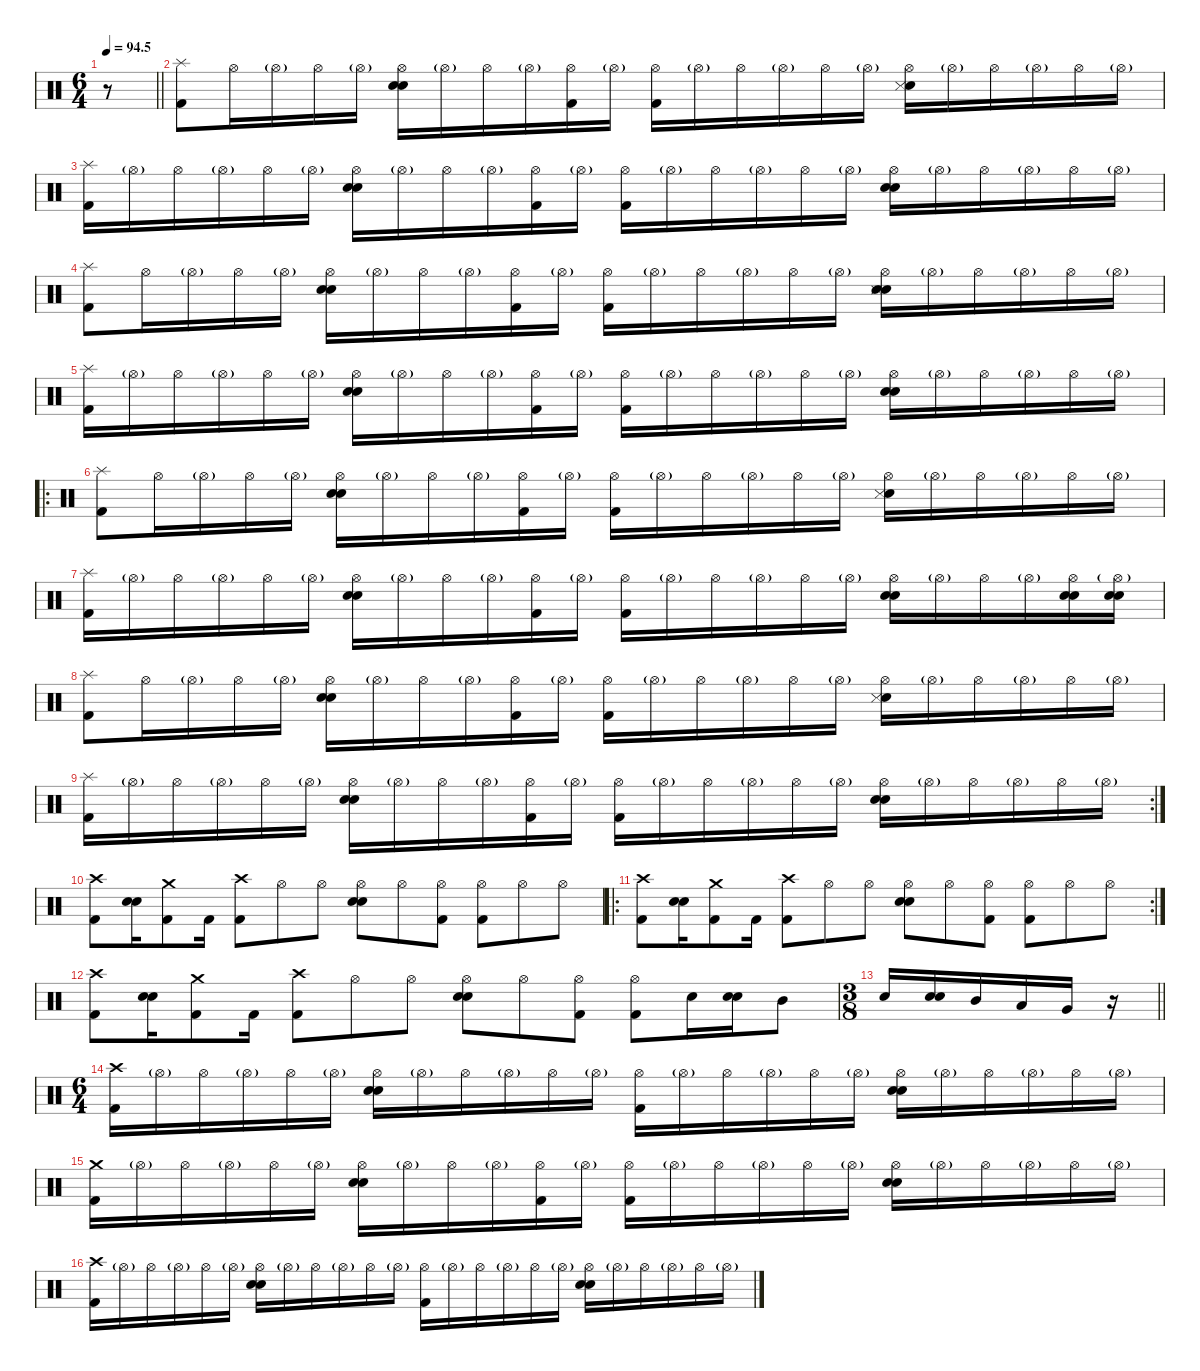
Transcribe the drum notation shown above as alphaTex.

\defaultSystemsLayout 4
\hideDynamics
\bracketExtendMode nobrackets
\singleTrackTrackNamePolicy hidden
\multiTrackTrackNamePolicy hidden
\firstSystemTrackNameMode fullname
\firstSystemTrackNameOrientation horizontal
\otherSystemsTrackNameOrientation horizontal
\track ("Drums" "drm.") {defaultSystemsLayout 2 instrument percussion}
\staff {score}
\articulation defaults
\ts (6 4)
\beaming (8 3 3 3 3)
\ac
\tempo
94.5
\accidentals auto
\clef neutral
\ottava regular
\simile none
\barLineRight lightlight
\ks c
r.8{dy fff beam Down} |
("Splash (hit)" "Kick (hit) 2").8{beam Down} "Hi-Hat (open)".16{dy mf beam Down} "Hi-Hat (open)"{g}.16{beam Down} "Hi-Hat (open)".16{beam Down} "Hi-Hat (open)"{g}.16{beam Down} ("Hi-Hat (open)" "Snare (hit) 2" "Metronome (bell)").16{beam Down} "Hi-Hat (open)"{g}.16{beam Down} "Hi-Hat (open)".16{beam Down} "Hi-Hat (open)"{g}.16{beam Down} ("Hi-Hat (open)" "Kick (hit) 2").16{beam Down} "Hi-Hat (open)"{g}.16{beam Down} ("Hi-Hat (open)" "Kick (hit) 2").16{beam Down} "Hi-Hat (open)"{g}.16{beam Down} "Hi-Hat (open)".16{beam Down} "Hi-Hat (open)"{g}.16{beam Down} "Hi-Hat (open)".16{beam Down} "Hi-Hat (open)"{g}.16{beam Down} ("Hi-Hat (open)" "Snare (hit) 2" "Metronome (hit)").16{dy f beam Down} "Hi-Hat (open)"{g}.16{dy mf beam Down} "Hi-Hat (open)".16{beam Down} "Hi-Hat (open)"{g}.16{beam Down} "Hi-Hat (open)".16{beam Down} "Hi-Hat (open)"{g}.16{beam Down} |
("Splash (hit)" "Kick (hit) 2").16{dy fff beam Down} "Hi-Hat (open)"{g}.16{dy mf beam Down} "Hi-Hat (open)".16{beam Down} "Hi-Hat (open)"{g}.16{beam Down} "Hi-Hat (open)".16{beam Down} "Hi-Hat (open)"{g}.16{beam Down} ("Hi-Hat (open)" "Snare (hit) 2" "Metronome (bell)").16{beam Down} "Hi-Hat (open)"{g}.16{beam Down} "Hi-Hat (open)".16{beam Down} "Hi-Hat (open)"{g}.16{beam Down} ("Hi-Hat (open)" "Kick (hit) 2").16{beam Down} "Hi-Hat (open)"{g}.16{beam Down} ("Hi-Hat (open)" "Kick (hit) 2").16{beam Down} "Hi-Hat (open)"{g}.16{beam Down} "Hi-Hat (open)".16{beam Down} "Hi-Hat (open)"{g}.16{beam Down} "Hi-Hat (open)".16{beam Down} "Hi-Hat (open)"{g}.16{beam Down} ("Hi-Hat (open)" "Snare (hit) 2" "Metronome (bell)").16{beam Down} "Hi-Hat (open)"{g}.16{beam Down} "Hi-Hat (open)".16{beam Down} "Hi-Hat (open)"{g}.16{beam Down} "Hi-Hat (open)".16{beam Down} "Hi-Hat (open)"{g}.16{beam Down} |
("Splash (hit)" "Kick (hit) 2").8{dy fff beam Down} "Hi-Hat (open)".16{dy mf beam Down} "Hi-Hat (open)"{g}.16{beam Down} "Hi-Hat (open)".16{beam Down} "Hi-Hat (open)"{g}.16{beam Down} ("Hi-Hat (open)" "Snare (hit) 2" "Metronome (bell)").16{beam Down} "Hi-Hat (open)"{g}.16{beam Down} "Hi-Hat (open)".16{beam Down} "Hi-Hat (open)"{g}.16{beam Down} ("Hi-Hat (open)" "Kick (hit) 2").16{beam Down} "Hi-Hat (open)"{g}.16{beam Down} ("Hi-Hat (open)" "Kick (hit) 2").16{beam Down} "Hi-Hat (open)"{g}.16{beam Down} "Hi-Hat (open)".16{beam Down} "Hi-Hat (open)"{g}.16{beam Down} "Hi-Hat (open)".16{beam Down} "Hi-Hat (open)"{g}.16{beam Down} ("Hi-Hat (open)" "Snare (hit) 2" "Metronome (bell)" "Metronome (hit)").16{beam Down} "Hi-Hat (open)"{g}.16{beam Down} "Hi-Hat (open)".16{beam Down} "Hi-Hat (open)"{g}.16{beam Down} "Hi-Hat (open)".16{beam Down} "Hi-Hat (open)"{g}.16{beam Down} |
("Splash (hit)" "Kick (hit) 2").16{dy fff beam Down} "Hi-Hat (open)"{g}.16{dy mf beam Down} "Hi-Hat (open)".16{beam Down} "Hi-Hat (open)"{g}.16{beam Down} "Hi-Hat (open)".16{beam Down} "Hi-Hat (open)"{g}.16{beam Down} ("Hi-Hat (open)" "Snare (hit) 2" "Metronome (bell)").16{beam Down} "Hi-Hat (open)"{g}.16{beam Down} "Hi-Hat (open)".16{beam Down} "Hi-Hat (open)"{g}.16{beam Down} ("Hi-Hat (open)" "Kick (hit) 2").16{beam Down} "Hi-Hat (open)"{g}.16{beam Down} ("Hi-Hat (open)" "Kick (hit) 2").16{beam Down} "Hi-Hat (open)"{g}.16{beam Down} "Hi-Hat (open)".16{beam Down} "Hi-Hat (open)"{g}.16{beam Down} "Hi-Hat (open)".16{beam Down} "Hi-Hat (open)"{g}.16{beam Down} ("Hi-Hat (open)" "Snare (hit) 2" "Metronome (bell)").16{beam Down} "Hi-Hat (open)"{g}.16{beam Down} "Hi-Hat (open)".16{beam Down} "Hi-Hat (open)"{g}.16{beam Down} "Hi-Hat (open)".16{beam Down} "Hi-Hat (open)"{g}.16{beam Down} |
\ro
("Splash (hit)" "Kick (hit) 2").8{dy fff beam Down} "Hi-Hat (open)".16{dy mf beam Down} "Hi-Hat (open)"{g}.16{beam Down} "Hi-Hat (open)".16{beam Down} "Hi-Hat (open)"{g}.16{beam Down} ("Hi-Hat (open)" "Snare (hit) 2" "Metronome (bell)").16{beam Down} "Hi-Hat (open)"{g}.16{beam Down} "Hi-Hat (open)".16{beam Down} "Hi-Hat (open)"{g}.16{beam Down} ("Hi-Hat (open)" "Kick (hit) 2").16{beam Down} "Hi-Hat (open)"{g}.16{beam Down} ("Hi-Hat (open)" "Kick (hit) 2").16{beam Down} "Hi-Hat (open)"{g}.16{beam Down} "Hi-Hat (open)".16{beam Down} "Hi-Hat (open)"{g}.16{beam Down} "Hi-Hat (open)".16{beam Down} "Hi-Hat (open)"{g}.16{beam Down} ("Hi-Hat (open)" "Snare (hit) 2" "Metronome (hit)").16{beam Down} "Hi-Hat (open)"{g}.16{beam Down} "Hi-Hat (open)".16{beam Down} "Hi-Hat (open)"{g}.16{beam Down} "Hi-Hat (open)".16{beam Down} "Hi-Hat (open)"{g}.16{beam Down} |
("Splash (hit)" "Kick (hit) 2").16{dy fff beam Down} "Hi-Hat (open)"{g}.16{dy mf beam Down} "Hi-Hat (open)".16{beam Down} "Hi-Hat (open)"{g}.16{beam Down} "Hi-Hat (open)".16{beam Down} "Hi-Hat (open)"{g}.16{beam Down} ("Hi-Hat (open)" "Snare (hit) 2" "Metronome (bell)").16{beam Down} "Hi-Hat (open)"{g}.16{beam Down} "Hi-Hat (open)".16{beam Down} "Hi-Hat (open)"{g}.16{beam Down} ("Hi-Hat (open)" "Kick (hit) 2").16{beam Down} "Hi-Hat (open)"{g}.16{beam Down} ("Hi-Hat (open)" "Kick (hit) 2").16{beam Down} "Hi-Hat (open)"{g}.16{beam Down} "Hi-Hat (open)".16{beam Down} "Hi-Hat (open)"{g}.16{beam Down} "Hi-Hat (open)".16{beam Down} "Hi-Hat (open)"{g}.16{beam Down} ("Hi-Hat (open)" "Snare (hit) 2" "Metronome (bell)").16{beam Down} "Hi-Hat (open)"{g}.16{beam Down} "Hi-Hat (open)".16{beam Down} "Hi-Hat (open)"{g}.16{beam Down} ("Hi-Hat (open)" "Snare (hit) 2" "Metronome (bell)").16{beam Down} ("Hi-Hat (open)"{g} "Snare (hit) 2" "Metronome (bell)").16{dy f beam Down} |
("Splash (hit)" "Kick (hit) 2").8{dy fff beam Down} "Hi-Hat (open)".16{dy mf beam Down} "Hi-Hat (open)"{g}.16{beam Down} "Hi-Hat (open)".16{beam Down} "Hi-Hat (open)"{g}.16{beam Down} ("Hi-Hat (open)" "Snare (hit) 2" "Metronome (bell)").16{beam Down} "Hi-Hat (open)"{g}.16{beam Down} "Hi-Hat (open)".16{beam Down} "Hi-Hat (open)"{g}.16{beam Down} ("Hi-Hat (open)" "Kick (hit) 2").16{beam Down} "Hi-Hat (open)"{g}.16{beam Down} ("Hi-Hat (open)" "Kick (hit) 2").16{beam Down} "Hi-Hat (open)"{g}.16{beam Down} "Hi-Hat (open)".16{beam Down} "Hi-Hat (open)"{g}.16{beam Down} "Hi-Hat (open)".16{beam Down} "Hi-Hat (open)"{g}.16{beam Down} ("Hi-Hat (open)" "Snare (hit) 2" "Metronome (hit)").16{beam Down} "Hi-Hat (open)"{g}.16{beam Down} "Hi-Hat (open)".16{beam Down} "Hi-Hat (open)"{g}.16{beam Down} "Hi-Hat (open)".16{beam Down} "Hi-Hat (open)"{g}.16{beam Down} |
\rc 2
("Splash (hit)" "Kick (hit) 2").16{dy fff beam Down} "Hi-Hat (open)"{g}.16{dy mf beam Down} "Hi-Hat (open)".16{beam Down} "Hi-Hat (open)"{g}.16{beam Down} "Hi-Hat (open)".16{beam Down} "Hi-Hat (open)"{g}.16{beam Down} ("Hi-Hat (open)" "Snare (hit) 2" "Metronome (bell)").16{beam Down} "Hi-Hat (open)"{g}.16{beam Down} "Hi-Hat (open)".16{beam Down} "Hi-Hat (open)"{g}.16{beam Down} ("Hi-Hat (open)" "Kick (hit) 2").16{beam Down} "Hi-Hat (open)"{g}.16{beam Down} ("Hi-Hat (open)" "Kick (hit) 2").16{beam Down} "Hi-Hat (open)"{g}.16{beam Down} "Hi-Hat (open)".16{beam Down} "Hi-Hat (open)"{g}.16{beam Down} "Hi-Hat (open)".16{beam Down} "Hi-Hat (open)"{g}.16{beam Down} ("Hi-Hat (open)" "Snare (hit) 2" "Metronome (bell)").16{beam Down} "Hi-Hat (open)"{g}.16{beam Down} "Hi-Hat (open)".16{beam Down} "Hi-Hat (open)"{g}.16{beam Down} "Hi-Hat (open)".16{beam Down} "Hi-Hat (open)"{g}.16{beam Down} |
("Crash high (hit)" "Kick (hit) 2").8{dy ff beam Down} ("Snare (hit) 2" "Metronome (bell)").16{dy f beam Down} ("Crash medium (hit)" "Kick (hit) 2").8{dy ff beam Down} "Kick (hit) 2".16{dy f beam Down} ("Crash high (hit)" "Kick (hit) 2").8{dy fff beam Down} "Hi-Hat (open)".8{dy mf beam Down} "Hi-Hat (open)".8{beam Down} ("Hi-Hat (open)" "Snare (hit) 2" "Metronome (bell)").8{beam Down} "Hi-Hat (open)".8{beam Down} ("Hi-Hat (open)" "Kick (hit) 2").8{beam Down} ("Hi-Hat (open)" "Kick (hit) 2").8{beam Down} "Hi-Hat (open)".8{beam Down} "Hi-Hat (open)".8{beam Down} |
\ro
\rc 2
("Crash high (hit)" "Kick (hit) 2").8{dy ff beam Down} ("Snare (hit) 2" "Metronome (bell)").16{dy f beam Down} ("Crash medium (hit)" "Kick (hit) 2").8{dy ff beam Down} "Kick (hit) 2".16{dy f beam Down} ("Crash high (hit)" "Kick (hit) 2").8{dy fff beam Down} "Hi-Hat (open)".8{dy mf beam Down} "Hi-Hat (open)".8{beam Down} ("Hi-Hat (open)" "Snare (hit) 2" "Metronome (bell)").8{beam Down} "Hi-Hat (open)".8{beam Down} ("Hi-Hat (open)" "Kick (hit) 2").8{beam Down} ("Hi-Hat (open)" "Kick (hit) 2").8{beam Down} "Hi-Hat (open)".8{beam Down} "Hi-Hat (open)".8{beam Down} |
("Crash high (hit)" "Kick (hit) 2").8{dy ff beam Down} ("Snare (hit) 2" "Metronome (bell)").16{dy f beam Down} ("Crash medium (hit)" "Kick (hit) 2").8{dy ff beam Down} "Kick (hit) 2".16{dy f beam Down} ("Crash high (hit)" "Kick (hit) 2").8{dy fff beam Down} "Hi-Hat (open)".8{dy mf beam Down} "Hi-Hat (open)".8{beam Down} ("Hi-Hat (open)" "Snare (hit) 2" "Metronome (bell)").8{beam Down} "Hi-Hat (open)".8{beam Down} ("Hi-Hat (open)" "Kick (hit) 2").8{beam Down} ("Hi-Hat (open)" "Kick (hit) 2").8{beam Down} "Snare (hit) 2".16{dy f beam Down} ("Snare (hit) 2" "Metronome (bell)").16{beam Down} "Mid Tom (hit)".8{dy fff beam Down} |
\ts (3 8)
\beaming (8 3 3 3 3)
\barLineRight lightlight "Snare (hit) 2".16{dy f beam Up}
("Snare (hit) 2" "Metronome (bell)").16{beam Up} "Mid Tom (hit)".16{beam Up} "Low Tom (hit)".16{beam Up} "Very Low Tom (hit)".16{beam Up} r.16{beam Up} |
\ts (6 4)
\beaming (8 3 3 3 3)
("Crash high (hit)" "Kick (hit) 2").16{dy fff beam Down} "Hi-Hat (open)"{g}.16{dy mf beam Down} "Hi-Hat (open)".16{beam Down} "Hi-Hat (open)"{g}.16{beam Down} "Hi-Hat (open)".16{beam Down} "Hi-Hat (open)"{g}.16{beam Down} ("Hi-Hat (open)" "Snare (hit) 2" "Metronome (bell)").16{beam Down} "Hi-Hat (open)"{g}.16{beam Down} "Hi-Hat (open)".16{beam Down} "Hi-Hat (open)"{g}.16{beam Down} "Hi-Hat (open)".16{beam Down} "Hi-Hat (open)"{g}.16{beam Down} ("Hi-Hat (open)" "Kick (hit) 2").16{beam Down} "Hi-Hat (open)"{g}.16{beam Down} "Hi-Hat (open)".16{beam Down} "Hi-Hat (open)"{g}.16{beam Down} "Hi-Hat (open)".16{beam Down} "Hi-Hat (open)"{g}.16{beam Down} ("Hi-Hat (open)" "Snare (hit) 2" "Metronome (bell)").16{beam Down} "Hi-Hat (open)"{g}.16{beam Down} "Hi-Hat (open)".16{beam Down} "Hi-Hat (open)"{g}.16{beam Down} "Hi-Hat (open)".16{beam Down} "Hi-Hat (open)"{g}.16{beam Down} |
("Crash medium (hit)" "Kick (hit) 2").16{beam Down} "Hi-Hat (open)"{g}.16{beam Down} "Hi-Hat (open)".16{beam Down} "Hi-Hat (open)"{g}.16{beam Down} "Hi-Hat (open)".16{beam Down} "Hi-Hat (open)"{g}.16{beam Down} ("Hi-Hat (open)" "Snare (hit) 2" "Metronome (bell)").16{beam Down} "Hi-Hat (open)"{g}.16{beam Down} "Hi-Hat (open)".16{beam Down} "Hi-Hat (open)"{g}.16{beam Down} ("Hi-Hat (open)" "Kick (hit) 2").16{beam Down} "Hi-Hat (open)"{g}.16{beam Down} ("Hi-Hat (open)" "Kick (hit) 2").16{beam Down} "Hi-Hat (open)"{g}.16{beam Down} "Hi-Hat (open)".16{beam Down} "Hi-Hat (open)"{g}.16{beam Down} "Hi-Hat (open)".16{beam Down} "Hi-Hat (open)"{g}.16{beam Down} ("Hi-Hat (open)" "Snare (hit) 2" "Metronome (bell)").16{beam Down} "Hi-Hat (open)"{g}.16{beam Down} "Hi-Hat (open)".16{beam Down} "Hi-Hat (open)"{g}.16{beam Down} "Hi-Hat (open)".16{beam Down} "Hi-Hat (open)"{g}.16{beam Down} |
("Crash high (hit)" "Kick (hit) 2").16{dy fff beam Down} "Hi-Hat (open)"{g}.16{dy mf beam Down} "Hi-Hat (open)".16{beam Down} "Hi-Hat (open)"{g}.16{beam Down} "Hi-Hat (open)".16{beam Down} "Hi-Hat (open)"{g}.16{beam Down} ("Hi-Hat (open)" "Snare (hit) 2" "Metronome (bell)").16{beam Down} "Hi-Hat (open)"{g}.16{beam Down} "Hi-Hat (open)".16{beam Down} "Hi-Hat (open)"{g}.16{beam Down} "Hi-Hat (open)".16{beam Down} "Hi-Hat (open)"{g}.16{beam Down} ("Hi-Hat (open)" "Kick (hit) 2").16{beam Down} "Hi-Hat (open)"{g}.16{beam Down} "Hi-Hat (open)".16{beam Down} "Hi-Hat (open)"{g}.16{beam Down} "Hi-Hat (open)".16{beam Down} "Hi-Hat (open)"{g}.16{beam Down} ("Hi-Hat (open)" "Snare (hit) 2" "Metronome (bell)").16{beam Down} "Hi-Hat (open)"{g}.16{beam Down} "Hi-Hat (open)".16{beam Down} "Hi-Hat (open)"{g}.16{beam Down} "Hi-Hat (open)".16{beam Down} "Hi-Hat (open)"{g}.16{beam Down}
